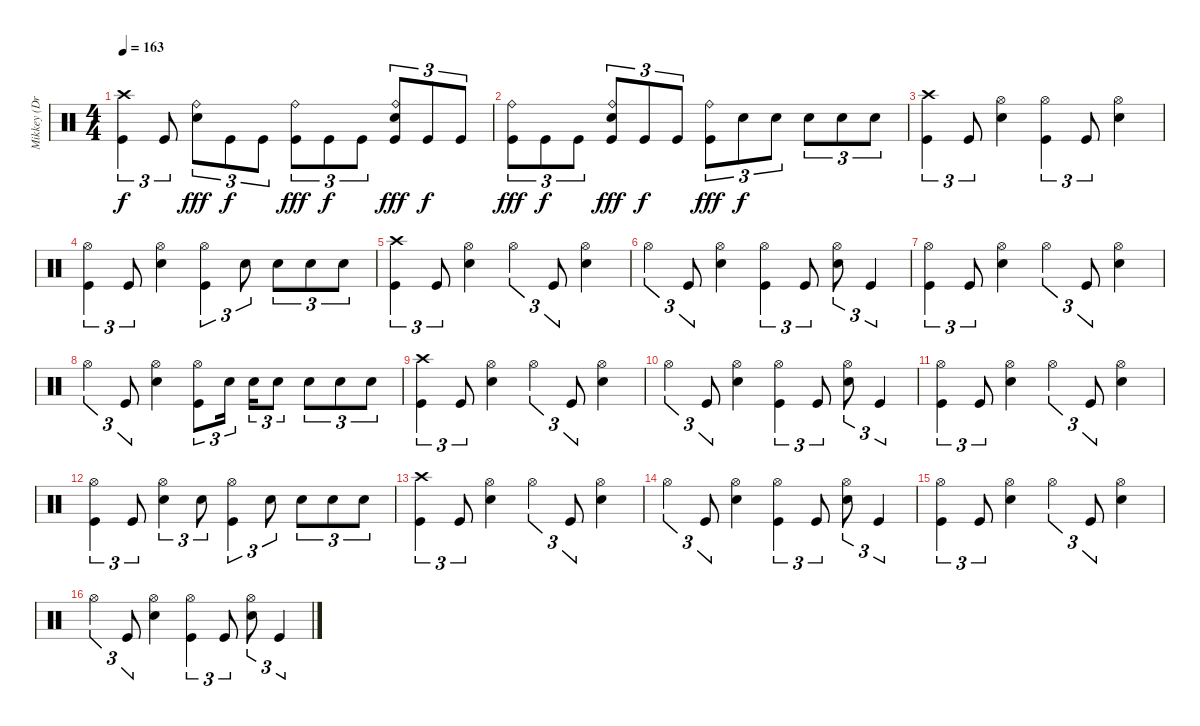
\track ("Mikkey (Drums)" "Mikkey (Dr") {instrument percussion}
\staff {score}
\articulation defaults
\ts (4 4)
\tempo 163
\clef neutral
\ks c
("Crash high (hit)" "Kick (hit)").4{tu (3 2) dy f} "Kick (hit)".8{tu (3 2)} ("Ride (bell)" "Electric Snare (hit)").8{tu (3 2) dy fff} "Kick (hit)".8{tu (3 2) dy f} "Kick (hit)".8{tu (3 2)} ("Ride (bell)" "Kick (hit)").8{tu (3 2) dy fff} "Kick (hit)".8{tu (3 2) dy f} "Kick (hit)".8{tu (3 2)} ("Ride (bell)" "Electric Snare (hit)" "Kick (hit)").8{tu (3 2) dy fff} "Kick (hit)".8{tu (3 2) dy f} "Kick (hit)".8{tu (3 2)} |
("Ride (bell)" "Kick (hit)").8{tu (3 2) dy fff} "Kick (hit)".8{tu (3 2) dy f} "Kick (hit)".8{tu (3 2)} ("Ride (bell)" "Electric Snare (hit)" "Kick (hit)").8{tu (3 2) dy fff} "Kick (hit)".8{tu (3 2) dy f} "Kick (hit)".8{tu (3 2)} ("Ride (bell)" "Kick (hit)").8{tu (3 2) dy fff} "Electric Snare (hit)".8{tu (3 2) dy f} "Electric Snare (hit)".8{tu (3 2)} "Electric Snare (hit)".8{tu (3 2)} "Electric Snare (hit)".8{tu (3 2)} "Electric Snare (hit)".8{tu (3 2)} |
("Crash high (hit)" "Kick (hit)").4{tu (3 2)} "Kick (hit)".8{tu (3 2)} ("Hi-Hat (open)" "Electric Snare (hit)").4 ("Hi-Hat (open)" "Kick (hit)").4{tu (3 2)} "Kick (hit)".8{tu (3 2)} ("Hi-Hat (open)" "Electric Snare (hit)").4 |
("Hi-Hat (open)" "Kick (hit)").4{tu (3 2)} "Kick (hit)".8{tu (3 2)} ("Hi-Hat (open)" "Electric Snare (hit)").4 ("Hi-Hat (open)" "Kick (hit)").4{tu (3 2)} "Electric Snare (hit)".8{tu (3 2)} "Electric Snare (hit)".8{tu (3 2)} "Electric Snare (hit)".8{tu (3 2)} "Electric Snare (hit)".8{tu (3 2)} |
("Crash high (hit)" "Kick (hit)").4{tu (3 2)} "Kick (hit)".8{tu (3 2)} ("Hi-Hat (open)" "Electric Snare (hit)").4 "Hi-Hat (open)".4{tu (3 2)} "Kick (hit)".8{tu (3 2)} ("Hi-Hat (open)" "Electric Snare (hit)").4 |
"Hi-Hat (open)".4{tu (3 2)} "Kick (hit)".8{tu (3 2)} ("Hi-Hat (open)" "Electric Snare (hit)").4 ("Hi-Hat (open)" "Kick (hit)").4{tu (3 2)} "Kick (hit)".8{tu (3 2)} ("Hi-Hat (open)" "Electric Snare (hit)").8{tu (3 2)} "Kick (hit)".4{tu (3 2)} |
("Hi-Hat (open)" "Kick (hit)").4{tu (3 2)} "Kick (hit)".8{tu (3 2)} ("Hi-Hat (open)" "Electric Snare (hit)").4 "Hi-Hat (open)".4{tu (3 2)} "Kick (hit)".8{tu (3 2)} ("Hi-Hat (open)" "Electric Snare (hit)").4 |
"Hi-Hat (open)".4{tu (3 2)} "Kick (hit)".8{tu (3 2)} ("Hi-Hat (open)" "Electric Snare (hit)").4 ("Hi-Hat (open)" "Kick (hit)").8{tu (3 2)} "Electric Snare (hit)".16{tu (3 2)} "Electric Snare (hit)".16{tu (3 2)} "Electric Snare (hit)".8{tu (3 2)} "Electric Snare (hit)".8{tu (3 2)} "Electric Snare (hit)".8{tu (3 2)} "Electric Snare (hit)".8{tu (3 2)} |
("Crash high (hit)" "Kick (hit)").4{tu (3 2)} "Kick (hit)".8{tu (3 2)} ("Hi-Hat (open)" "Electric Snare (hit)").4 "Hi-Hat (open)".4{tu (3 2)} "Kick (hit)".8{tu (3 2)} ("Hi-Hat (open)" "Electric Snare (hit)").4 |
"Hi-Hat (open)".4{tu (3 2)} "Kick (hit)".8{tu (3 2)} ("Hi-Hat (open)" "Electric Snare (hit)").4 ("Hi-Hat (open)" "Kick (hit)").4{tu (3 2)} "Kick (hit)".8{tu (3 2)} ("Hi-Hat (open)" "Electric Snare (hit)").8{tu (3 2)} "Kick (hit)".4{tu (3 2)} |
("Hi-Hat (open)" "Kick (hit)").4{tu (3 2)} "Kick (hit)".8{tu (3 2)} ("Hi-Hat (open)" "Electric Snare (hit)").4 "Hi-Hat (open)".4{tu (3 2)} "Kick (hit)".8{tu (3 2)} ("Hi-Hat (open)" "Electric Snare (hit)").4 |
("Hi-Hat (open)" "Kick (hit)").4{tu (3 2)} "Kick (hit)".8{tu (3 2)} ("Hi-Hat (open)" "Electric Snare (hit)").4{tu (3 2)} "Electric Snare (hit)".8{tu (3 2)} ("Hi-Hat (open)" "Kick (hit)").4{tu (3 2)} "Electric Snare (hit)".8{tu (3 2)} "Electric Snare (hit)".8{tu (3 2)} "Electric Snare (hit)".8{tu (3 2)} "Electric Snare (hit)".8{tu (3 2)} |
("Crash high (hit)" "Kick (hit)").4{tu (3 2)} "Kick (hit)".8{tu (3 2)} ("Hi-Hat (open)" "Electric Snare (hit)").4 "Hi-Hat (open)".4{tu (3 2)} "Kick (hit)".8{tu (3 2)} ("Hi-Hat (open)" "Electric Snare (hit)").4 |
"Hi-Hat (open)".4{tu (3 2)} "Kick (hit)".8{tu (3 2)} ("Hi-Hat (open)" "Electric Snare (hit)").4 ("Hi-Hat (open)" "Kick (hit)").4{tu (3 2)} "Kick (hit)".8{tu (3 2)} ("Hi-Hat (open)" "Electric Snare (hit)").8{tu (3 2)} "Kick (hit)".4{tu (3 2)} |
("Hi-Hat (open)" "Kick (hit)").4{tu (3 2)} "Kick (hit)".8{tu (3 2)} ("Hi-Hat (open)" "Electric Snare (hit)").4 "Hi-Hat (open)".4{tu (3 2)} "Kick (hit)".8{tu (3 2)} ("Hi-Hat (open)" "Electric Snare (hit)").4 |
"Hi-Hat (open)".4{tu (3 2)} "Kick (hit)".8{tu (3 2)} ("Hi-Hat (open)" "Electric Snare (hit)").4 ("Hi-Hat (open)" "Kick (hit)").4{tu (3 2)} "Kick (hit)".8{tu (3 2)} ("Hi-Hat (open)" "Electric Snare (hit)").8{tu (3 2)} "Kick (hit)".4{tu (3 2)}
